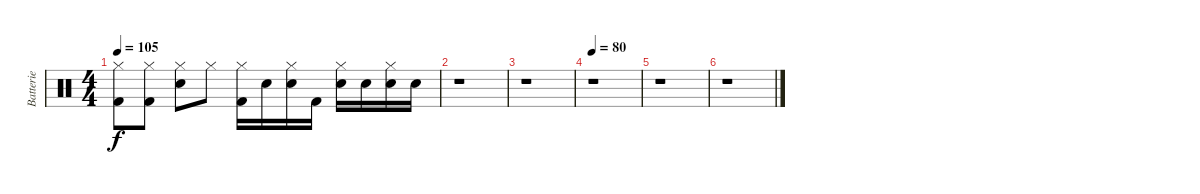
\track ("Batterie" "Batterie") {instrument percussion}
\staff {score}
\articulation defaults
\ts (4 4)
\tempo 105
\clef neutral
\ks c
("Hi-Hat (closed)" "Kick (hit) 2").8{dy f} ("Hi-Hat (closed)" "Kick (hit) 2").8 ("Hi-Hat (closed)" "Electric Snare (hit)").8 "Hi-Hat (closed)".8 ("Hi-Hat (closed)" "Kick (hit) 2").16 "Electric Snare (hit)".16 ("Hi-Hat (closed)" "Electric Snare (hit)").16 "Kick (hit) 2".16 ("Hi-Hat (closed)" "Electric Snare (hit)").16 "Electric Snare (hit)".16 ("Hi-Hat (closed)" "Electric Snare (hit)").16 "Electric Snare (hit)".16 |
r.1 |
r.1 |
\tempo 80
r.1 |
r.1 |
r.1
